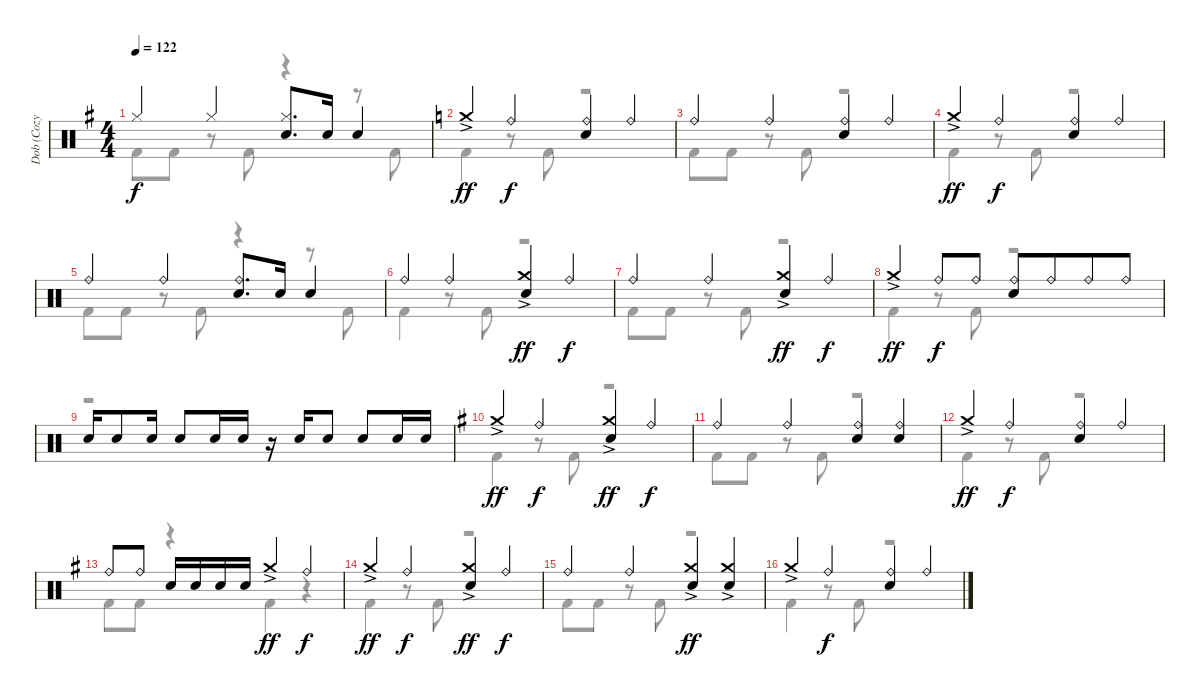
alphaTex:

\track ("Dob (Cozy Powell)" "Dob (Cozy ") {instrument percussion}
\staff {score}
\articulation defaults
\voice
\ts (4 4)
\tempo 122
\clef neutral
\ks g "Hi-Hat (closed)".4{dy f} "Hi-Hat (closed)".4
("Hi-Hat (closed)" "Electric Snare (hit)").8{d} "Electric Snare (hit)".16 "Electric Snare (hit)".4 |
\ks c "Crash medium (hit)"{ac}.4{dy ff} "Ride (bell)".4{dy f}
("Ride (bell)" "Electric Snare (hit)").4 "Ride (bell)".4 |
"Ride (bell)".4 "Ride (bell)".4 ("Ride (bell)" "Electric Snare (hit)").4 "Ride (bell)".4 |
"Crash medium (hit)"{ac}.4{dy ff} "Ride (bell)".4{dy f} ("Ride (bell)" "Electric Snare (hit)").4 "Ride (bell)".4 |
"Ride (bell)".4 "Ride (bell)".4 ("Ride (bell)" "Electric Snare (hit)").8{d} "Electric Snare (hit)".16 "Electric Snare (hit)".4 |
"Ride (bell)".4 "Ride (bell)".4 ("Crash medium (hit)"{ac} "Electric Snare (hit)").4{dy ff} "Ride (bell)".4{dy f} |
"Ride (bell)".4 "Ride (bell)".4 ("Crash medium (hit)"{ac} "Electric Snare (hit)").4{dy ff} "Ride (bell)".4{dy f} |
"Crash medium (hit)"{ac}.4{dy ff} "Ride (bell)".8{dy f} "Ride (bell)".8 ("Ride (bell)" "Electric Snare (hit)").8 "Ride (bell)".8{beam merge} "Ride (bell)".8 "Ride (bell)".8 |
"Electric Snare (hit)".16 "Electric Snare (hit)".8 "Electric Snare (hit)".16 "Electric Snare (hit)".8 "Electric Snare (hit)".16 "Electric Snare (hit)".16 r.16 "Electric Snare (hit)".16 "Electric Snare (hit)".8 "Electric Snare (hit)".8 "Electric Snare (hit)".16 "Electric Snare (hit)".16 |
\ks g "Crash medium (hit)"{ac}.4{dy ff} "Ride (bell)".4{dy f}
("Crash medium (hit)"{ac} "Electric Snare (hit)").4{dy ff} "Ride (bell)".4{dy f} |
"Ride (bell)".4 "Ride (bell)".4 ("Ride (bell)" "Electric Snare (hit)").4 ("Ride (bell)" "Electric Snare (hit)").4 |
"Crash medium (hit)"{ac}.4{dy ff} "Ride (bell)".4{dy f} ("Ride (bell)" "Electric Snare (hit)").4 "Ride (bell)".4 |
"Ride (bell)".8 "Ride (bell)".8 "Electric Snare (hit)".16 "Electric Snare (hit)".16 "Electric Snare (hit)".16 "Electric Snare (hit)".16 "Crash medium (hit)"{ac}.4{dy ff} "Ride (bell)".4{dy f} |
"Crash medium (hit)"{ac}.4{dy ff} "Ride (bell)".4{dy f} ("Crash medium (hit)"{ac} "Electric Snare (hit)").4{dy ff} "Ride (bell)".4{dy f} |
"Ride (bell)".4 "Ride (bell)".4 ("Crash medium (hit)"{ac} "Electric Snare (hit)").4{dy ff} ("Crash medium (hit)"{ac} "Electric Snare (hit)").4 |
"Crash medium (hit)"{ac}.4 "Ride (bell)".4{dy f} ("Ride (bell)" "Electric Snare (hit)").4 "Ride (bell)".4
\voice
\clef neutral
\ottava regular
\simile none
\ks g "Kick (hit) 2".8{dy f} "Kick (hit) 2".8
r.8 "Kick (hit) 2".8 r.4 r.8 "Kick (hit) 2".8 |
\ks c "Kick (hit) 2".4
r.8 "Kick (hit) 2".8 r.2 |
"Kick (hit) 2".8 "Kick (hit) 2".8 r.8 "Kick (hit) 2".8 r.2 |
"Kick (hit) 2".4 r.8 "Kick (hit) 2".8 r.2 |
"Kick (hit) 2".8 "Kick (hit) 2".8 r.8 "Kick (hit) 2".8 r.4 r.8 "Kick (hit) 2".8 |
"Kick (hit) 2".4 r.8 "Kick (hit) 2".8 r.2 |
"Kick (hit) 2".8 "Kick (hit) 2".8 r.8 "Kick (hit) 2".8 r.2 |
"Kick (hit) 2".4 r.8 "Kick (hit) 2".8 r.2 |
r.1 |
\ks g "Kick (hit) 2".4
r.8 "Kick (hit) 2".8 r.2 |
"Kick (hit) 2".8 "Kick (hit) 2".8 r.8 "Kick (hit) 2".8 r.2 |
"Kick (hit) 2".4 r.8 "Kick (hit) 2".8 r.2 |
"Kick (hit) 2".8 "Kick (hit) 2".8 r.4 "Kick (hit) 2".4 r.4 |
"Kick (hit) 2".4 r.8 "Kick (hit) 2".8 r.2 |
"Kick (hit) 2".8 "Kick (hit) 2".8 r.8 "Kick (hit) 2".8 r.2 |
"Kick (hit) 2".4 r.8 "Kick (hit) 2".8 r.2
